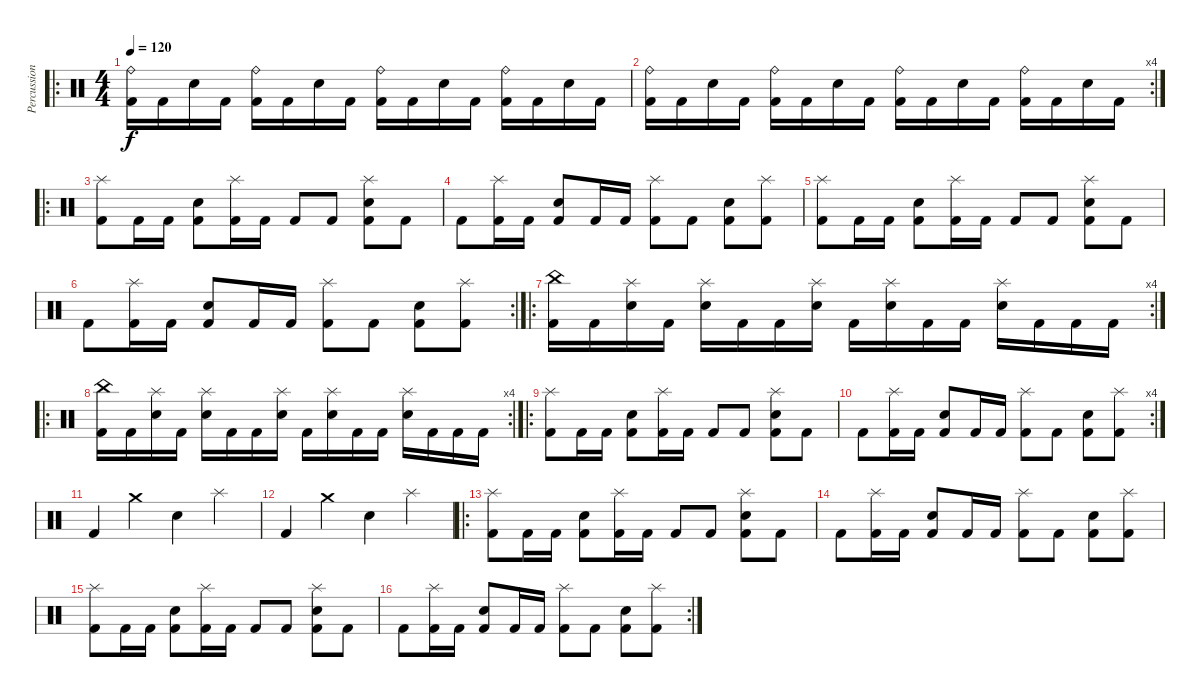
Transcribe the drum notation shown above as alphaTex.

\track ("Percussion" "Percussion") {instrument percussion}
\staff {score}
\articulation defaults
\ro
\ts (4 4)
\tempo 120
\clef neutral
\ks c
("Ride (bell)" "Kick (hit) 2").16{dy f} "Kick (hit) 2".16 "Electric Snare (hit)".16 "Kick (hit) 2".16 ("Ride (bell)" "Kick (hit) 2").16 "Kick (hit) 2".16 "Electric Snare (hit)".16 "Kick (hit) 2".16 ("Ride (bell)" "Kick (hit) 2").16 "Kick (hit) 2".16 "Electric Snare (hit)".16 "Kick (hit) 2".16 ("Ride (bell)" "Kick (hit) 2").16 "Kick (hit) 2".16 "Electric Snare (hit)".16 "Kick (hit) 2".16 |
\rc 4
("Ride (bell)" "Kick (hit) 2").16 "Kick (hit) 2".16 "Electric Snare (hit)".16 "Kick (hit) 2".16 ("Ride (bell)" "Kick (hit) 2").16 "Kick (hit) 2".16 "Electric Snare (hit)".16 "Kick (hit) 2".16 ("Ride (bell)" "Kick (hit) 2").16 "Kick (hit) 2".16 "Electric Snare (hit)".16 "Kick (hit) 2".16 ("Ride (bell)" "Kick (hit) 2").16 "Kick (hit) 2".16 "Electric Snare (hit)".16 "Kick (hit) 2".16 |
\ro
("Splash (hit)" "Kick (hit) 2").8 "Kick (hit) 2".16 "Kick (hit) 2".16 ("Electric Snare (hit)" "Kick (hit) 2").8 ("Splash (hit)" "Kick (hit) 2").16 "Kick (hit) 2".16 "Kick (hit) 2".8 "Kick (hit) 2".8 ("Splash (hit)" "Electric Snare (hit)" "Kick (hit) 2").8 "Kick (hit) 2".8 |
"Kick (hit) 2".8 ("Splash (hit)" "Kick (hit) 2").16 "Kick (hit) 2".16 ("Electric Snare (hit)" "Kick (hit) 2").8 "Kick (hit) 2".16 "Kick (hit) 2".16 ("Splash (hit)" "Kick (hit) 2").8 "Kick (hit) 2".8 ("Electric Snare (hit)" "Kick (hit) 2").8 ("Splash (hit)" "Kick (hit) 2").8 |
("Splash (hit)" "Kick (hit) 2").8 "Kick (hit) 2".16 "Kick (hit) 2".16 ("Electric Snare (hit)" "Kick (hit) 2").8 ("Splash (hit)" "Kick (hit) 2").16 "Kick (hit) 2".16 "Kick (hit) 2".8 "Kick (hit) 2".8 ("Splash (hit)" "Electric Snare (hit)" "Kick (hit) 2").8 "Kick (hit) 2".8 |
\rc 2 "Kick (hit) 2".8
("Splash (hit)" "Kick (hit) 2").16 "Kick (hit) 2".16 ("Electric Snare (hit)" "Kick (hit) 2").8 "Kick (hit) 2".16 "Kick (hit) 2".16 ("Splash (hit)" "Kick (hit) 2").8 "Kick (hit) 2".8 ("Electric Snare (hit)" "Kick (hit) 2").8 ("Splash (hit)" "Kick (hit) 2").8 |
\ro
\rc 4
("China (hit)" "Kick (hit) 2").16 "Kick (hit) 2".16 ("Splash (hit)" "Electric Snare (hit)").16 "Kick (hit) 2".16 ("Splash (hit)" "Electric Snare (hit)").16 "Kick (hit) 2".16 "Kick (hit) 2".16 ("Splash (hit)" "Electric Snare (hit)").16 "Kick (hit) 2".16 ("Splash (hit)" "Electric Snare (hit)").16 "Kick (hit) 2".16 "Kick (hit) 2".16 ("Splash (hit)" "Electric Snare (hit)").16 "Kick (hit) 2".16 "Kick (hit) 2".16 "Kick (hit) 2".16 |
\ro
\rc 4
("China (hit)" "Kick (hit) 2").16 "Kick (hit) 2".16 ("Splash (hit)" "Electric Snare (hit)").16 "Kick (hit) 2".16 ("Splash (hit)" "Electric Snare (hit)").16 "Kick (hit) 2".16 "Kick (hit) 2".16 ("Splash (hit)" "Electric Snare (hit)").16 "Kick (hit) 2".16 ("Splash (hit)" "Electric Snare (hit)").16 "Kick (hit) 2".16 "Kick (hit) 2".16 ("Splash (hit)" "Electric Snare (hit)").16 "Kick (hit) 2".16 "Kick (hit) 2".16 "Kick (hit) 2".16 |
\ro
("Splash (hit)" "Kick (hit) 2").8 "Kick (hit) 2".16 "Kick (hit) 2".16 ("Electric Snare (hit)" "Kick (hit) 2").8 ("Splash (hit)" "Kick (hit) 2").16 "Kick (hit) 2".16 "Kick (hit) 2".8 "Kick (hit) 2".8 ("Splash (hit)" "Electric Snare (hit)" "Kick (hit) 2").8 "Kick (hit) 2".8 |
\rc 4 "Kick (hit) 2".8
("Splash (hit)" "Kick (hit) 2").16 "Kick (hit) 2".16 ("Electric Snare (hit)" "Kick (hit) 2").8 "Kick (hit) 2".16 "Kick (hit) 2".16 ("Splash (hit)" "Kick (hit) 2").8 "Kick (hit) 2".8 ("Electric Snare (hit)" "Kick (hit) 2").8 ("Splash (hit)" "Kick (hit) 2").8 |
"Kick (hit) 2".4 "Crash medium (hit)".4 "Electric Snare (hit)".4 "Splash (hit)".4 |
"Kick (hit) 2".4 "Crash medium (hit)".4 "Electric Snare (hit)".4 "Splash (hit)".4 |
\ro
("Splash (hit)" "Kick (hit) 2").8 "Kick (hit) 2".16 "Kick (hit) 2".16 ("Electric Snare (hit)" "Kick (hit) 2").8 ("Splash (hit)" "Kick (hit) 2").16 "Kick (hit) 2".16 "Kick (hit) 2".8 "Kick (hit) 2".8 ("Splash (hit)" "Electric Snare (hit)" "Kick (hit) 2").8 "Kick (hit) 2".8 |
"Kick (hit) 2".8 ("Splash (hit)" "Kick (hit) 2").16 "Kick (hit) 2".16 ("Electric Snare (hit)" "Kick (hit) 2").8 "Kick (hit) 2".16 "Kick (hit) 2".16 ("Splash (hit)" "Kick (hit) 2").8 "Kick (hit) 2".8 ("Electric Snare (hit)" "Kick (hit) 2").8 ("Splash (hit)" "Kick (hit) 2").8 |
("Splash (hit)" "Kick (hit) 2").8 "Kick (hit) 2".16 "Kick (hit) 2".16 ("Electric Snare (hit)" "Kick (hit) 2").8 ("Splash (hit)" "Kick (hit) 2").16 "Kick (hit) 2".16 "Kick (hit) 2".8 "Kick (hit) 2".8 ("Splash (hit)" "Electric Snare (hit)" "Kick (hit) 2").8 "Kick (hit) 2".8 |
\rc 2 "Kick (hit) 2".8
("Splash (hit)" "Kick (hit) 2").16 "Kick (hit) 2".16 ("Electric Snare (hit)" "Kick (hit) 2").8 "Kick (hit) 2".16 "Kick (hit) 2".16 ("Splash (hit)" "Kick (hit) 2").8 "Kick (hit) 2".8 ("Electric Snare (hit)" "Kick (hit) 2").8 ("Splash (hit)" "Kick (hit) 2").8
